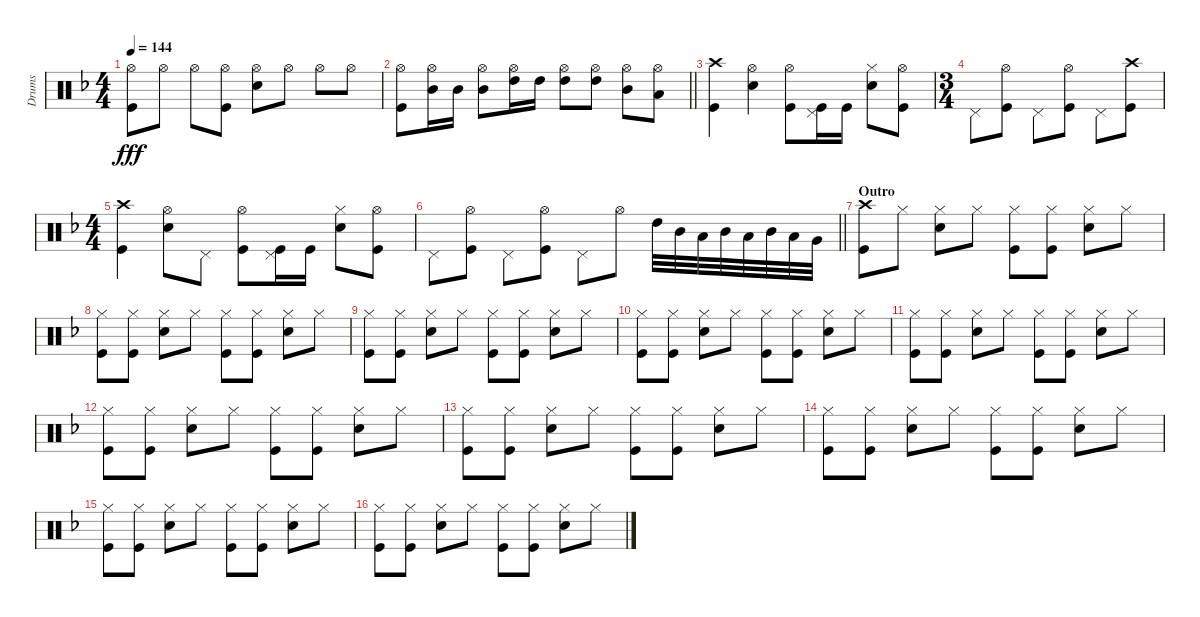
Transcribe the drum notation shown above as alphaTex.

\track ("Drums" "Drums") {instrument percussion}
\staff {score}
\articulation defaults
\ts (4 4)
\tempo 144
\clef neutral
\ks f
("Hi-Hat (open)" "Kick (hit)").8{dy fff} "Hi-Hat (open)".8 "Hi-Hat (open)".8 ("Hi-Hat (open)" "Kick (hit)").8 ("Hi-Hat (open)" "Snare (hit) 2").8 "Hi-Hat (open)".8 "Hi-Hat (open)".8 "Hi-Hat (open)".8 |
\barLineRight lightlight
("Hi-Hat (open)" "Kick (hit)").8 ("Hi-Hat (open)" "Mid Tom (hit)").16 "Mid Tom (hit)".16 ("Hi-Hat (open)" "Mid Tom (hit)").8 ("Hi-Hat (open)" "High Tom (hit)").16 "High Tom (hit)".16 ("Hi-Hat (open)" "High Tom (hit)").8 ("Hi-Hat (open)" "High Tom (hit)").8 ("Hi-Hat (open)" "Mid Tom (hit)").8 ("Hi-Hat (open)" "Low Tom (hit)").8 |
("Crash high (hit)" "Kick (hit)").4 ("Hi-Hat (open)" "Snare (hit) 2").4 ("Hi-Hat (open)" "Kick (hit)").8 ("Pedal Hi-Hat (hit)" "Kick (hit)").16 "Kick (hit)".16 ("Hi-Hat (closed)" "Snare (hit) 2").8 ("Hi-Hat (open)" "Kick (hit)").8 |
\ts (3 4)
"Pedal Hi-Hat (hit)".8 ("Hi-Hat (open)" "Kick (hit)").8 "Pedal Hi-Hat (hit)".8 ("Hi-Hat (open)" "Kick (hit)").8 "Pedal Hi-Hat (hit)".8 ("Crash high (hit)" "Kick (hit)").8 |
\ts (4 4)
("Crash high (hit)" "Kick (hit)").4 ("Hi-Hat (open)" "Snare (hit) 2").8 "Pedal Hi-Hat (hit)".8 ("Hi-Hat (open)" "Kick (hit)").8 ("Pedal Hi-Hat (hit)" "Kick (hit)").16 "Kick (hit)".16 ("Hi-Hat (closed)" "Snare (hit) 2").8 ("Hi-Hat (open)" "Kick (hit)").8 |
\barLineRight lightlight "Pedal Hi-Hat (hit)".8
("Hi-Hat (open)" "Kick (hit)").8 "Pedal Hi-Hat (hit)".8 ("Hi-Hat (open)" "Kick (hit)").8 "Pedal Hi-Hat (hit)".8 "Hi-Hat (open)".8 "High Tom (hit)".32 "Mid Tom (hit)".32 "Low Tom (hit)".32 "Mid Tom (hit)".32 "Low Tom (hit)".32 "Mid Tom (hit)".32 "Low Tom (hit)".32 "Very Low Tom (hit)".32 |
\section ("" "Outro")
("Crash high (hit)" "Kick (hit)").8 "Hi-Hat (closed)".8 ("Hi-Hat (closed)" "Snare (hit) 2").8 "Hi-Hat (closed)".8 ("Hi-Hat (closed)" "Kick (hit)").8 ("Hi-Hat (closed)" "Kick (hit)").8 ("Hi-Hat (closed)" "Snare (hit) 2").8 "Hi-Hat (closed)".8 |
("Hi-Hat (closed)" "Kick (hit)").8 ("Hi-Hat (closed)" "Kick (hit)").8 ("Hi-Hat (closed)" "Snare (hit) 2").8 "Hi-Hat (closed)".8 ("Hi-Hat (closed)" "Kick (hit)").8 ("Hi-Hat (closed)" "Kick (hit)").8 ("Hi-Hat (closed)" "Snare (hit) 2").8 "Hi-Hat (closed)".8 |
("Hi-Hat (closed)" "Kick (hit)").8 ("Hi-Hat (closed)" "Kick (hit)").8 ("Hi-Hat (closed)" "Snare (hit) 2").8 "Hi-Hat (closed)".8 ("Hi-Hat (closed)" "Kick (hit)").8 ("Hi-Hat (closed)" "Kick (hit)").8 ("Hi-Hat (closed)" "Snare (hit) 2").8 "Hi-Hat (closed)".8 |
("Hi-Hat (closed)" "Kick (hit)").8 ("Hi-Hat (closed)" "Kick (hit)").8 ("Hi-Hat (closed)" "Snare (hit) 2").8 "Hi-Hat (closed)".8 ("Hi-Hat (closed)" "Kick (hit)").8 ("Hi-Hat (closed)" "Kick (hit)").8 ("Hi-Hat (closed)" "Snare (hit) 2").8 "Hi-Hat (closed)".8 |
("Hi-Hat (closed)" "Kick (hit)").8 ("Hi-Hat (closed)" "Kick (hit)").8 ("Hi-Hat (closed)" "Snare (hit) 2").8 "Hi-Hat (closed)".8 ("Hi-Hat (closed)" "Kick (hit)").8 ("Hi-Hat (closed)" "Kick (hit)").8 ("Hi-Hat (closed)" "Snare (hit) 2").8 "Hi-Hat (closed)".8 |
("Hi-Hat (closed)" "Kick (hit)").8 ("Hi-Hat (closed)" "Kick (hit)").8 ("Hi-Hat (closed)" "Snare (hit) 2").8 "Hi-Hat (closed)".8 ("Hi-Hat (closed)" "Kick (hit)").8 ("Hi-Hat (closed)" "Kick (hit)").8 ("Hi-Hat (closed)" "Snare (hit) 2").8 "Hi-Hat (closed)".8 |
("Hi-Hat (closed)" "Kick (hit)").8 ("Hi-Hat (closed)" "Kick (hit)").8 ("Hi-Hat (closed)" "Snare (hit) 2").8 "Hi-Hat (closed)".8 ("Hi-Hat (closed)" "Kick (hit)").8 ("Hi-Hat (closed)" "Kick (hit)").8 ("Hi-Hat (closed)" "Snare (hit) 2").8 "Hi-Hat (closed)".8 |
("Hi-Hat (closed)" "Kick (hit)").8 ("Hi-Hat (closed)" "Kick (hit)").8 ("Hi-Hat (closed)" "Snare (hit) 2").8 "Hi-Hat (closed)".8 ("Hi-Hat (closed)" "Kick (hit)").8 ("Hi-Hat (closed)" "Kick (hit)").8 ("Hi-Hat (closed)" "Snare (hit) 2").8 "Hi-Hat (closed)".8 |
("Hi-Hat (closed)" "Kick (hit)").8 ("Hi-Hat (closed)" "Kick (hit)").8 ("Hi-Hat (closed)" "Snare (hit) 2").8 "Hi-Hat (closed)".8 ("Hi-Hat (closed)" "Kick (hit)").8 ("Hi-Hat (closed)" "Kick (hit)").8 ("Hi-Hat (closed)" "Snare (hit) 2").8 "Hi-Hat (closed)".8 |
("Hi-Hat (closed)" "Kick (hit)").8 ("Hi-Hat (closed)" "Kick (hit)").8 ("Hi-Hat (closed)" "Snare (hit) 2").8 "Hi-Hat (closed)".8 ("Hi-Hat (closed)" "Kick (hit)").8 ("Hi-Hat (closed)" "Kick (hit)").8 ("Hi-Hat (closed)" "Snare (hit) 2").8 "Hi-Hat (closed)".8
